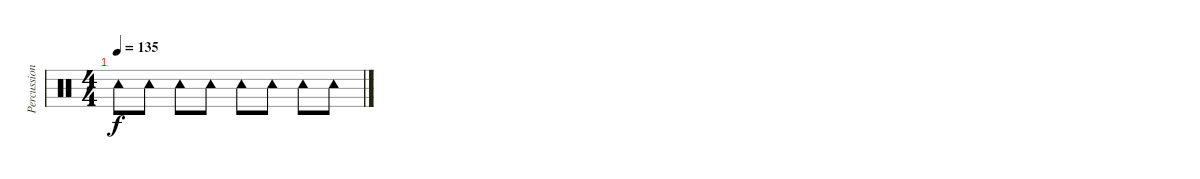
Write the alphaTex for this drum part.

\track ("Percussion 2" "Percussion") {instrument percussion}
\staff {score}
\articulation defaults
\ts (4 4)
\tempo 135
\clef neutral
\ks c "Tambourine (hit)".8{dy f} "Tambourine (hit)".8 "Tambourine (hit)".8 "Tambourine (hit)".8 "Tambourine (hit)".8 "Tambourine (hit)".8 "Tambourine (hit)".8 "Tambourine (hit)".8
